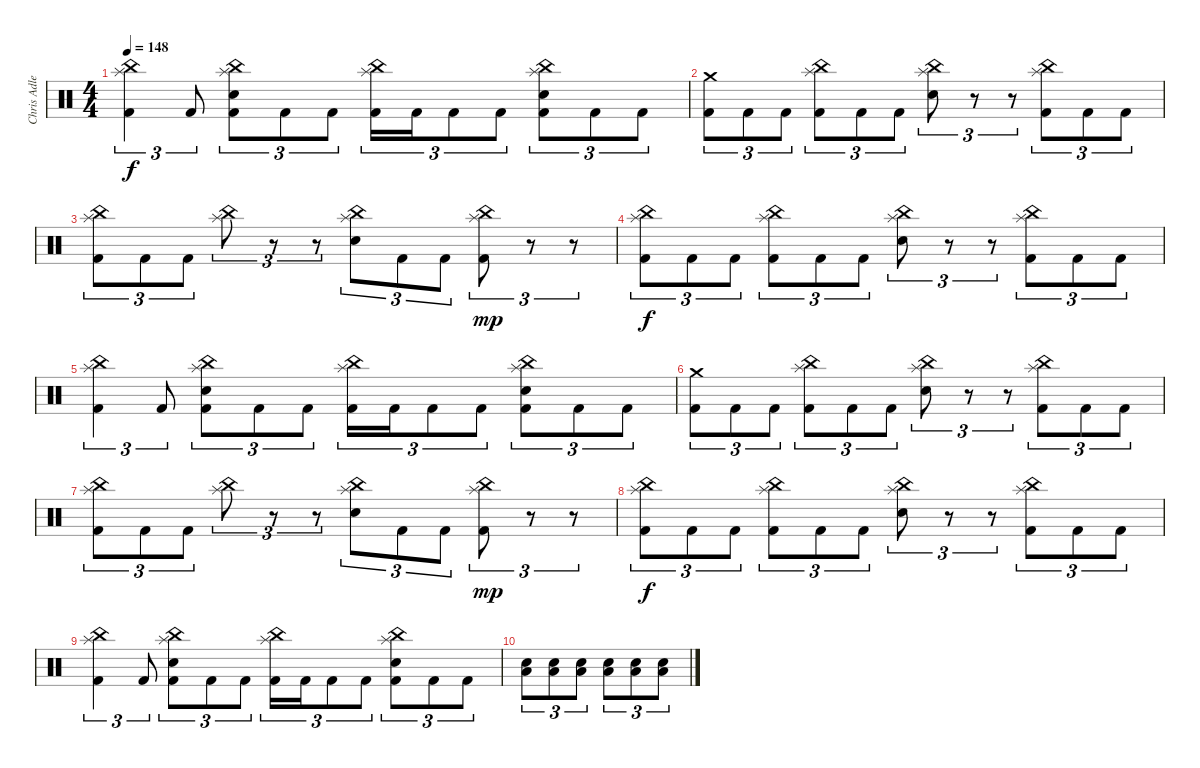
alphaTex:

\track ("Chris Adler" "Chris Adle") {instrument percussion}
\staff {score}
\articulation defaults
\ts (4 4)
\tempo 148
\clef neutral
\ks c
("China (hit)" "Splash (hit)" "Kick (hit) 2").4{tu (3 2) dy f} "Kick (hit) 2".8{tu (3 2)} ("China (hit)" "Splash (hit)" "Snare (hit) 2" "Kick (hit) 2").8{tu (3 2)} "Kick (hit) 2".8{tu (3 2)} "Kick (hit) 2".8{tu (3 2)} ("China (hit)" "Splash (hit)" "Kick (hit) 2").16{tu (3 2)} "Kick (hit) 2".16{tu (3 2)} "Kick (hit) 2".8{tu (3 2)} "Kick (hit) 2".8{tu (3 2)} ("China (hit)" "Splash (hit)" "Snare (hit) 2" "Kick (hit) 2").8{tu (3 2)} "Kick (hit) 2".8{tu (3 2)} "Kick (hit) 2".8{tu (3 2)} |
("Crash medium (hit)" "Kick (hit) 2").8{tu (3 2)} "Kick (hit) 2".8{tu (3 2)} "Kick (hit) 2".8{tu (3 2)} ("China (hit)" "Splash (hit)" "Kick (hit) 2").8{tu (3 2)} "Kick (hit) 2".8{tu (3 2)} "Kick (hit) 2".8{tu (3 2)} ("China (hit)" "Splash (hit)" "Snare (hit) 2").8{tu (3 2)} r.8{tu (3 2)} r.8{tu (3 2)} ("China (hit)" "Splash (hit)" "Kick (hit) 2").8{tu (3 2)} "Kick (hit) 2".8{tu (3 2)} "Kick (hit) 2".8{tu (3 2)} |
("China (hit)" "Splash (hit)" "Kick (hit) 2").8{tu (3 2)} "Kick (hit) 2".8{tu (3 2)} "Kick (hit) 2".8{tu (3 2)} ("China (hit)" "Splash (hit)").8{tu (3 2)} r.8{tu (3 2)} r.8{tu (3 2)} ("China (hit)" "Splash (hit)" "Snare (hit) 2").8{tu (3 2)} "Kick (hit) 2".8{tu (3 2)} "Kick (hit) 2".8{tu (3 2)} ("China (hit)" "Splash (hit)" "Kick (hit) 2").8{tu (3 2) dy mp} r.8{tu (3 2)} r.8{tu (3 2)} |
("China (hit)" "Splash (hit)" "Kick (hit) 2").8{tu (3 2) dy f} "Kick (hit) 2".8{tu (3 2)} "Kick (hit) 2".8{tu (3 2)} ("China (hit)" "Splash (hit)" "Kick (hit) 2").8{tu (3 2)} "Kick (hit) 2".8{tu (3 2)} "Kick (hit) 2".8{tu (3 2)} ("China (hit)" "Splash (hit)" "Snare (hit) 2").8{tu (3 2)} r.8{tu (3 2)} r.8{tu (3 2)} ("China (hit)" "Splash (hit)" "Kick (hit) 2").8{tu (3 2)} "Kick (hit) 2".8{tu (3 2)} "Kick (hit) 2".8{tu (3 2)} |
("China (hit)" "Splash (hit)" "Kick (hit) 2").4{tu (3 2)} "Kick (hit) 2".8{tu (3 2)} ("China (hit)" "Splash (hit)" "Snare (hit) 2" "Kick (hit) 2").8{tu (3 2)} "Kick (hit) 2".8{tu (3 2)} "Kick (hit) 2".8{tu (3 2)} ("China (hit)" "Splash (hit)" "Kick (hit) 2").16{tu (3 2)} "Kick (hit) 2".16{tu (3 2)} "Kick (hit) 2".8{tu (3 2)} "Kick (hit) 2".8{tu (3 2)} ("China (hit)" "Splash (hit)" "Snare (hit) 2" "Kick (hit) 2").8{tu (3 2)} "Kick (hit) 2".8{tu (3 2)} "Kick (hit) 2".8{tu (3 2)} |
("Crash medium (hit)" "Kick (hit) 2").8{tu (3 2)} "Kick (hit) 2".8{tu (3 2)} "Kick (hit) 2".8{tu (3 2)} ("China (hit)" "Splash (hit)" "Kick (hit) 2").8{tu (3 2)} "Kick (hit) 2".8{tu (3 2)} "Kick (hit) 2".8{tu (3 2)} ("China (hit)" "Splash (hit)" "Snare (hit) 2").8{tu (3 2)} r.8{tu (3 2)} r.8{tu (3 2)} ("China (hit)" "Splash (hit)" "Kick (hit) 2").8{tu (3 2)} "Kick (hit) 2".8{tu (3 2)} "Kick (hit) 2".8{tu (3 2)} |
("China (hit)" "Splash (hit)" "Kick (hit) 2").8{tu (3 2)} "Kick (hit) 2".8{tu (3 2)} "Kick (hit) 2".8{tu (3 2)} ("China (hit)" "Splash (hit)").8{tu (3 2)} r.8{tu (3 2)} r.8{tu (3 2)} ("China (hit)" "Splash (hit)" "Snare (hit) 2").8{tu (3 2)} "Kick (hit) 2".8{tu (3 2)} "Kick (hit) 2".8{tu (3 2)} ("China (hit)" "Splash (hit)" "Kick (hit) 2").8{tu (3 2) dy mp} r.8{tu (3 2)} r.8{tu (3 2)} |
("China (hit)" "Splash (hit)" "Kick (hit) 2").8{tu (3 2) dy f} "Kick (hit) 2".8{tu (3 2)} "Kick (hit) 2".8{tu (3 2)} ("China (hit)" "Splash (hit)" "Kick (hit) 2").8{tu (3 2)} "Kick (hit) 2".8{tu (3 2)} "Kick (hit) 2".8{tu (3 2)} ("China (hit)" "Splash (hit)" "Snare (hit) 2").8{tu (3 2)} r.8{tu (3 2)} r.8{tu (3 2)} ("China (hit)" "Splash (hit)" "Kick (hit) 2").8{tu (3 2)} "Kick (hit) 2".8{tu (3 2)} "Kick (hit) 2".8{tu (3 2)} |
("China (hit)" "Splash (hit)" "Kick (hit) 2").4{tu (3 2)} "Kick (hit) 2".8{tu (3 2)} ("China (hit)" "Splash (hit)" "Snare (hit) 2" "Kick (hit) 2").8{tu (3 2)} "Kick (hit) 2".8{tu (3 2)} "Kick (hit) 2".8{tu (3 2)} ("China (hit)" "Splash (hit)" "Kick (hit) 2").16{tu (3 2)} "Kick (hit) 2".16{tu (3 2)} "Kick (hit) 2".8{tu (3 2)} "Kick (hit) 2".8{tu (3 2)} ("China (hit)" "Splash (hit)" "Snare (hit) 2" "Kick (hit) 2").8{tu (3 2)} "Kick (hit) 2".8{tu (3 2)} "Kick (hit) 2".8{tu (3 2)} |
("Low Floor Tom (hit)" "Electric Snare (hit)").8{tu (3 2)} ("Low Floor Tom (hit)" "Electric Snare (hit)").8{tu (3 2)} ("Low Floor Tom (hit)" "Electric Snare (hit)").8{tu (3 2)} ("Low Floor Tom (hit)" "Electric Snare (hit)").8{tu (3 2)} ("Low Floor Tom (hit)" "Electric Snare (hit)").8{tu (3 2)} ("Low Floor Tom (hit)" "Electric Snare (hit)").8{tu (3 2)}
